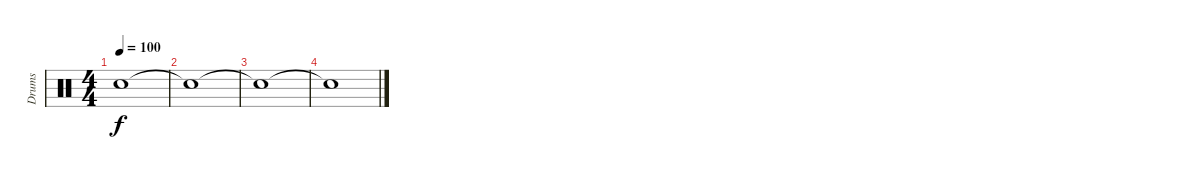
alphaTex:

\track ("Drums" "Drums") {instrument percussion}
\staff {score}
\articulation defaults
\ts (4 4)
\tempo 100
\clef neutral
\ks c "Snare (hit)"{t}.1{dy f}
|
"Snare (hit)"{t}.1 |
"Snare (hit)"{t}.1 |
"Snare (hit)"{t}.1
